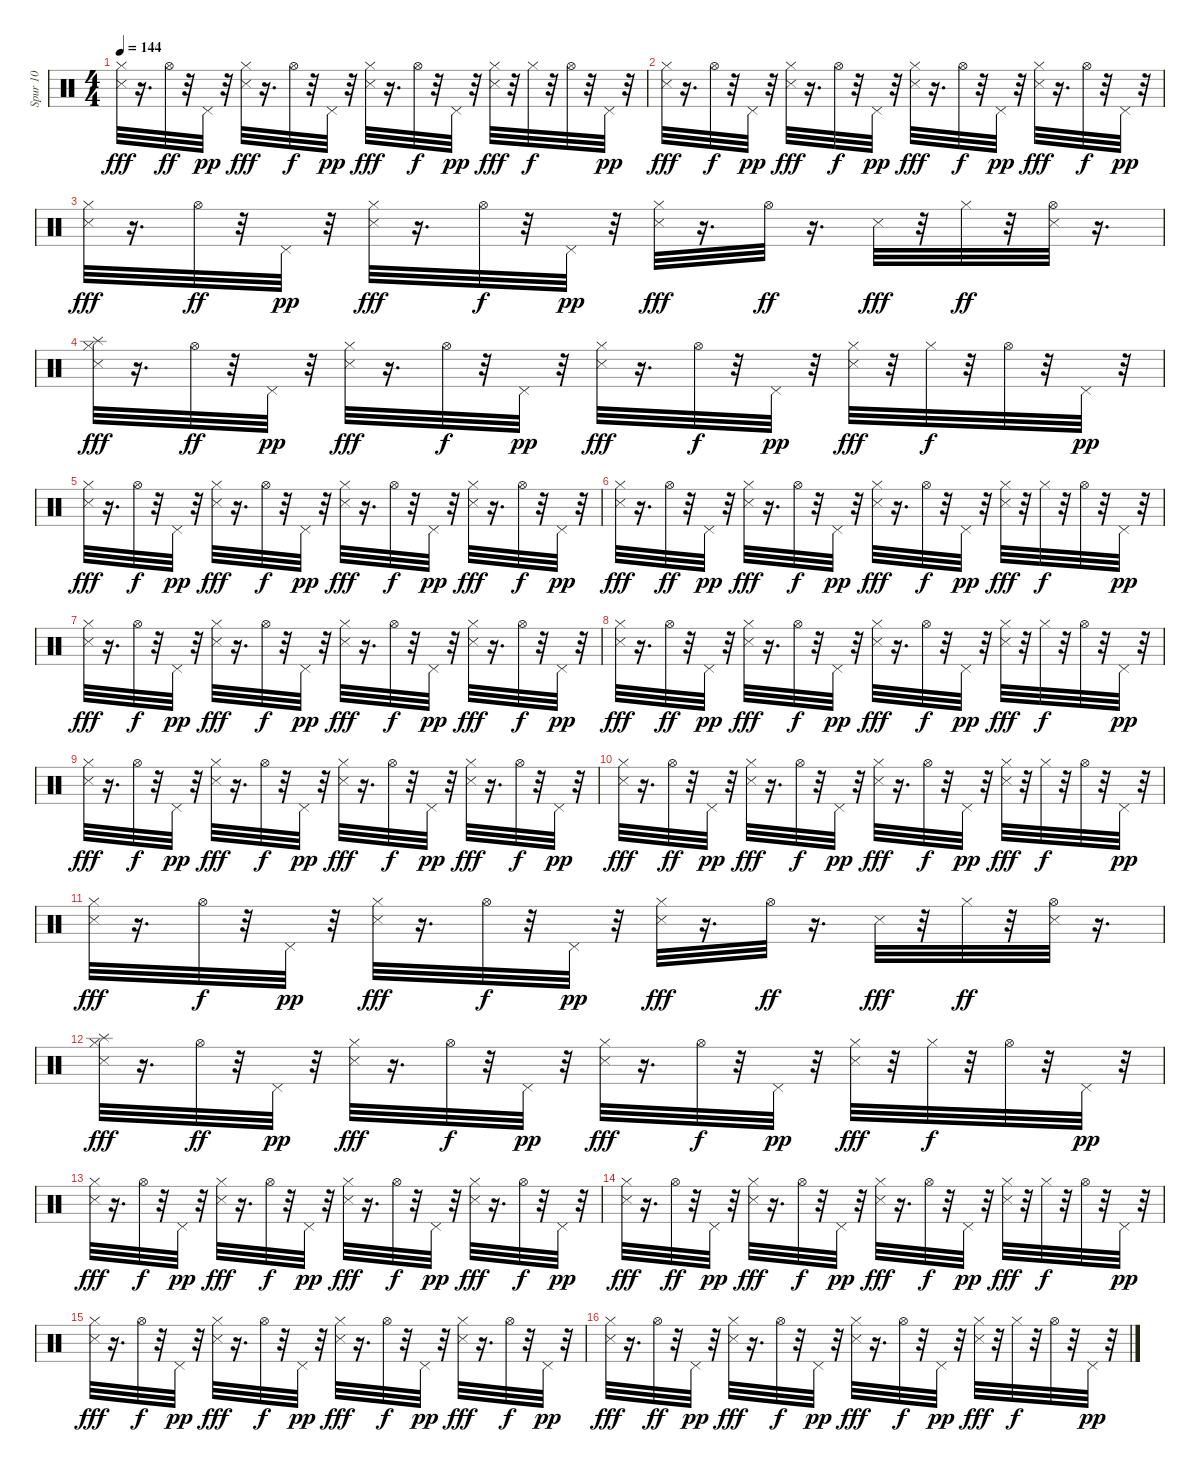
\track ("Spur 10" "Spur 10") {instrument percussion}
\staff {score}
\articulation defaults
\ts (4 4)
\tempo 144
\clef neutral
\ks c
("Metronome (hit)" "Hi-Hat (closed)").32{dy fff} r.16{d} "Hi-Hat (open)".32{dy ff} r.32 "Pedal Hi-Hat (hit)".32{dy pp} r.32 ("Metronome (hit)" "Hi-Hat (closed)").32{dy fff} r.16{d} "Hi-Hat (open)".32{dy f} r.32 "Pedal Hi-Hat (hit)".32{dy pp} r.32 ("Metronome (hit)" "Hi-Hat (closed)").32{dy fff} r.16{d} "Hi-Hat (open)".32{dy f} r.32 "Pedal Hi-Hat (hit)".32{dy pp} r.32 ("Metronome (hit)" "Hi-Hat (closed)").32{dy fff} r.32 "Hi-Hat (closed)".32{dy f} r.32 "Hi-Hat (open)".32 r.32 "Pedal Hi-Hat (hit)".32{dy pp} r.32 |
("Metronome (hit)" "Hi-Hat (closed)").32{dy fff} r.16{d} "Hi-Hat (open)".32{dy f} r.32 "Pedal Hi-Hat (hit)".32{dy pp} r.32 ("Metronome (hit)" "Hi-Hat (closed)").32{dy fff} r.16{d} "Hi-Hat (open)".32{dy f} r.32 "Pedal Hi-Hat (hit)".32{dy pp} r.32 ("Metronome (hit)" "Hi-Hat (closed)").32{dy fff} r.16{d} "Hi-Hat (open)".32{dy f} r.32 "Pedal Hi-Hat (hit)".32{dy pp} r.32 ("Metronome (hit)" "Hi-Hat (closed)").32{dy fff} r.16{d} "Hi-Hat (open)".32{dy f} r.32 "Pedal Hi-Hat (hit)".32{dy pp} r.32 |
("Metronome (hit)" "Hi-Hat (closed)").32{dy fff} r.16{d} "Hi-Hat (open)".32{dy ff} r.32 "Pedal Hi-Hat (hit)".32{dy pp} r.32 ("Metronome (hit)" "Hi-Hat (closed)").32{dy fff} r.16{d} "Hi-Hat (open)".32{dy f} r.32 "Pedal Hi-Hat (hit)".32{dy pp} r.32 ("Metronome (hit)" "Hi-Hat (closed)").32{dy fff} r.16{d} "Hi-Hat (open)".32{dy ff} r.16{d} "Metronome (hit)".32{dy fff} r.32 "Hi-Hat (closed)".32{dy ff} r.32 ("Metronome (hit)" "Hi-Hat (open)").32 r.16{d} |
("Splash (hit)" "Metronome (hit)" "Hi-Hat (closed)").32{dy fff} r.16{d} "Hi-Hat (open)".32{dy ff} r.32 "Pedal Hi-Hat (hit)".32{dy pp} r.32 ("Metronome (hit)" "Hi-Hat (closed)").32{dy fff} r.16{d} "Hi-Hat (open)".32{dy f} r.32 "Pedal Hi-Hat (hit)".32{dy pp} r.32 ("Metronome (hit)" "Hi-Hat (closed)").32{dy fff} r.16{d} "Hi-Hat (open)".32{dy f} r.32 "Pedal Hi-Hat (hit)".32{dy pp} r.32 ("Metronome (hit)" "Hi-Hat (closed)").32{dy fff} r.32 "Hi-Hat (closed)".32{dy f} r.32 "Hi-Hat (open)".32 r.32 "Pedal Hi-Hat (hit)".32{dy pp} r.32 |
("Metronome (hit)" "Hi-Hat (closed)").32{dy fff} r.16{d} "Hi-Hat (open)".32{dy f} r.32 "Pedal Hi-Hat (hit)".32{dy pp} r.32 ("Metronome (hit)" "Hi-Hat (closed)").32{dy fff} r.16{d} "Hi-Hat (open)".32{dy f} r.32 "Pedal Hi-Hat (hit)".32{dy pp} r.32 ("Metronome (hit)" "Hi-Hat (closed)").32{dy fff} r.16{d} "Hi-Hat (open)".32{dy f} r.32 "Pedal Hi-Hat (hit)".32{dy pp} r.32 ("Metronome (hit)" "Hi-Hat (closed)").32{dy fff} r.16{d} "Hi-Hat (open)".32{dy f} r.32 "Pedal Hi-Hat (hit)".32{dy pp} r.32 |
("Metronome (hit)" "Hi-Hat (closed)").32{dy fff} r.16{d} "Hi-Hat (open)".32{dy ff} r.32 "Pedal Hi-Hat (hit)".32{dy pp} r.32 ("Metronome (hit)" "Hi-Hat (closed)").32{dy fff} r.16{d} "Hi-Hat (open)".32{dy f} r.32 "Pedal Hi-Hat (hit)".32{dy pp} r.32 ("Metronome (hit)" "Hi-Hat (closed)").32{dy fff} r.16{d} "Hi-Hat (open)".32{dy f} r.32 "Pedal Hi-Hat (hit)".32{dy pp} r.32 ("Metronome (hit)" "Hi-Hat (closed)").32{dy fff} r.32 "Hi-Hat (closed)".32{dy f} r.32 "Hi-Hat (open)".32 r.32 "Pedal Hi-Hat (hit)".32{dy pp} r.32 |
("Metronome (hit)" "Hi-Hat (closed)").32{dy fff} r.16{d} "Hi-Hat (open)".32{dy f} r.32 "Pedal Hi-Hat (hit)".32{dy pp} r.32 ("Metronome (hit)" "Hi-Hat (closed)").32{dy fff} r.16{d} "Hi-Hat (open)".32{dy f} r.32 "Pedal Hi-Hat (hit)".32{dy pp} r.32 ("Metronome (hit)" "Hi-Hat (closed)").32{dy fff} r.16{d} "Hi-Hat (open)".32{dy f} r.32 "Pedal Hi-Hat (hit)".32{dy pp} r.32 ("Metronome (hit)" "Hi-Hat (closed)").32{dy fff} r.16{d} "Hi-Hat (open)".32{dy f} r.32 "Pedal Hi-Hat (hit)".32{dy pp} r.32 |
("Metronome (hit)" "Hi-Hat (closed)").32{dy fff} r.16{d} "Hi-Hat (open)".32{dy ff} r.32 "Pedal Hi-Hat (hit)".32{dy pp} r.32 ("Metronome (hit)" "Hi-Hat (closed)").32{dy fff} r.16{d} "Hi-Hat (open)".32{dy f} r.32 "Pedal Hi-Hat (hit)".32{dy pp} r.32 ("Metronome (hit)" "Hi-Hat (closed)").32{dy fff} r.16{d} "Hi-Hat (open)".32{dy f} r.32 "Pedal Hi-Hat (hit)".32{dy pp} r.32 ("Metronome (hit)" "Hi-Hat (closed)").32{dy fff} r.32 "Hi-Hat (closed)".32{dy f} r.32 "Hi-Hat (open)".32 r.32 "Pedal Hi-Hat (hit)".32{dy pp} r.32 |
("Metronome (hit)" "Hi-Hat (closed)").32{dy fff} r.16{d} "Hi-Hat (open)".32{dy f} r.32 "Pedal Hi-Hat (hit)".32{dy pp} r.32 ("Metronome (hit)" "Hi-Hat (closed)").32{dy fff} r.16{d} "Hi-Hat (open)".32{dy f} r.32 "Pedal Hi-Hat (hit)".32{dy pp} r.32 ("Metronome (hit)" "Hi-Hat (closed)").32{dy fff} r.16{d} "Hi-Hat (open)".32{dy f} r.32 "Pedal Hi-Hat (hit)".32{dy pp} r.32 ("Metronome (hit)" "Hi-Hat (closed)").32{dy fff} r.16{d} "Hi-Hat (open)".32{dy f} r.32 "Pedal Hi-Hat (hit)".32{dy pp} r.32 |
("Metronome (hit)" "Hi-Hat (closed)").32{dy fff} r.16{d} "Hi-Hat (open)".32{dy ff} r.32 "Pedal Hi-Hat (hit)".32{dy pp} r.32 ("Metronome (hit)" "Hi-Hat (closed)").32{dy fff} r.16{d} "Hi-Hat (open)".32{dy f} r.32 "Pedal Hi-Hat (hit)".32{dy pp} r.32 ("Metronome (hit)" "Hi-Hat (closed)").32{dy fff} r.16{d} "Hi-Hat (open)".32{dy f} r.32 "Pedal Hi-Hat (hit)".32{dy pp} r.32 ("Metronome (hit)" "Hi-Hat (closed)").32{dy fff} r.32 "Hi-Hat (closed)".32{dy f} r.32 "Hi-Hat (open)".32 r.32 "Pedal Hi-Hat (hit)".32{dy pp} r.32 |
("Metronome (hit)" "Hi-Hat (closed)").32{dy fff} r.16{d} "Hi-Hat (open)".32{dy f} r.32 "Pedal Hi-Hat (hit)".32{dy pp} r.32 ("Metronome (hit)" "Hi-Hat (closed)").32{dy fff} r.16{d} "Hi-Hat (open)".32{dy f} r.32 "Pedal Hi-Hat (hit)".32{dy pp} r.32 ("Metronome (hit)" "Hi-Hat (closed)").32{dy fff} r.16{d} "Hi-Hat (open)".32{dy ff} r.16{d} "Metronome (hit)".32{dy fff} r.32 "Hi-Hat (closed)".32{dy ff} r.32 ("Metronome (hit)" "Hi-Hat (open)").32 r.16{d} |
("Splash (hit)" "Metronome (hit)" "Hi-Hat (closed)").32{dy fff} r.16{d} "Hi-Hat (open)".32{dy ff} r.32 "Pedal Hi-Hat (hit)".32{dy pp} r.32 ("Metronome (hit)" "Hi-Hat (closed)").32{dy fff} r.16{d} "Hi-Hat (open)".32{dy f} r.32 "Pedal Hi-Hat (hit)".32{dy pp} r.32 ("Metronome (hit)" "Hi-Hat (closed)").32{dy fff} r.16{d} "Hi-Hat (open)".32{dy f} r.32 "Pedal Hi-Hat (hit)".32{dy pp} r.32 ("Metronome (hit)" "Hi-Hat (closed)").32{dy fff} r.32 "Hi-Hat (closed)".32{dy f} r.32 "Hi-Hat (open)".32 r.32 "Pedal Hi-Hat (hit)".32{dy pp} r.32 |
("Metronome (hit)" "Hi-Hat (closed)").32{dy fff} r.16{d} "Hi-Hat (open)".32{dy f} r.32 "Pedal Hi-Hat (hit)".32{dy pp} r.32 ("Metronome (hit)" "Hi-Hat (closed)").32{dy fff} r.16{d} "Hi-Hat (open)".32{dy f} r.32 "Pedal Hi-Hat (hit)".32{dy pp} r.32 ("Metronome (hit)" "Hi-Hat (closed)").32{dy fff} r.16{d} "Hi-Hat (open)".32{dy f} r.32 "Pedal Hi-Hat (hit)".32{dy pp} r.32 ("Metronome (hit)" "Hi-Hat (closed)").32{dy fff} r.16{d} "Hi-Hat (open)".32{dy f} r.32 "Pedal Hi-Hat (hit)".32{dy pp} r.32 |
("Metronome (hit)" "Hi-Hat (closed)").32{dy fff} r.16{d} "Hi-Hat (open)".32{dy ff} r.32 "Pedal Hi-Hat (hit)".32{dy pp} r.32 ("Metronome (hit)" "Hi-Hat (closed)").32{dy fff} r.16{d} "Hi-Hat (open)".32{dy f} r.32 "Pedal Hi-Hat (hit)".32{dy pp} r.32 ("Metronome (hit)" "Hi-Hat (closed)").32{dy fff} r.16{d} "Hi-Hat (open)".32{dy f} r.32 "Pedal Hi-Hat (hit)".32{dy pp} r.32 ("Metronome (hit)" "Hi-Hat (closed)").32{dy fff} r.32 "Hi-Hat (closed)".32{dy f} r.32 "Hi-Hat (open)".32 r.32 "Pedal Hi-Hat (hit)".32{dy pp} r.32 |
("Metronome (hit)" "Hi-Hat (closed)").32{dy fff} r.16{d} "Hi-Hat (open)".32{dy f} r.32 "Pedal Hi-Hat (hit)".32{dy pp} r.32 ("Metronome (hit)" "Hi-Hat (closed)").32{dy fff} r.16{d} "Hi-Hat (open)".32{dy f} r.32 "Pedal Hi-Hat (hit)".32{dy pp} r.32 ("Metronome (hit)" "Hi-Hat (closed)").32{dy fff} r.16{d} "Hi-Hat (open)".32{dy f} r.32 "Pedal Hi-Hat (hit)".32{dy pp} r.32 ("Metronome (hit)" "Hi-Hat (closed)").32{dy fff} r.16{d} "Hi-Hat (open)".32{dy f} r.32 "Pedal Hi-Hat (hit)".32{dy pp} r.32 |
("Metronome (hit)" "Hi-Hat (closed)").32{dy fff} r.16{d} "Hi-Hat (open)".32{dy ff} r.32 "Pedal Hi-Hat (hit)".32{dy pp} r.32 ("Metronome (hit)" "Hi-Hat (closed)").32{dy fff} r.16{d} "Hi-Hat (open)".32{dy f} r.32 "Pedal Hi-Hat (hit)".32{dy pp} r.32 ("Metronome (hit)" "Hi-Hat (closed)").32{dy fff} r.16{d} "Hi-Hat (open)".32{dy f} r.32 "Pedal Hi-Hat (hit)".32{dy pp} r.32 ("Metronome (hit)" "Hi-Hat (closed)").32{dy fff} r.32 "Hi-Hat (closed)".32{dy f} r.32 "Hi-Hat (open)".32 r.32 "Pedal Hi-Hat (hit)".32{dy pp} r.32
